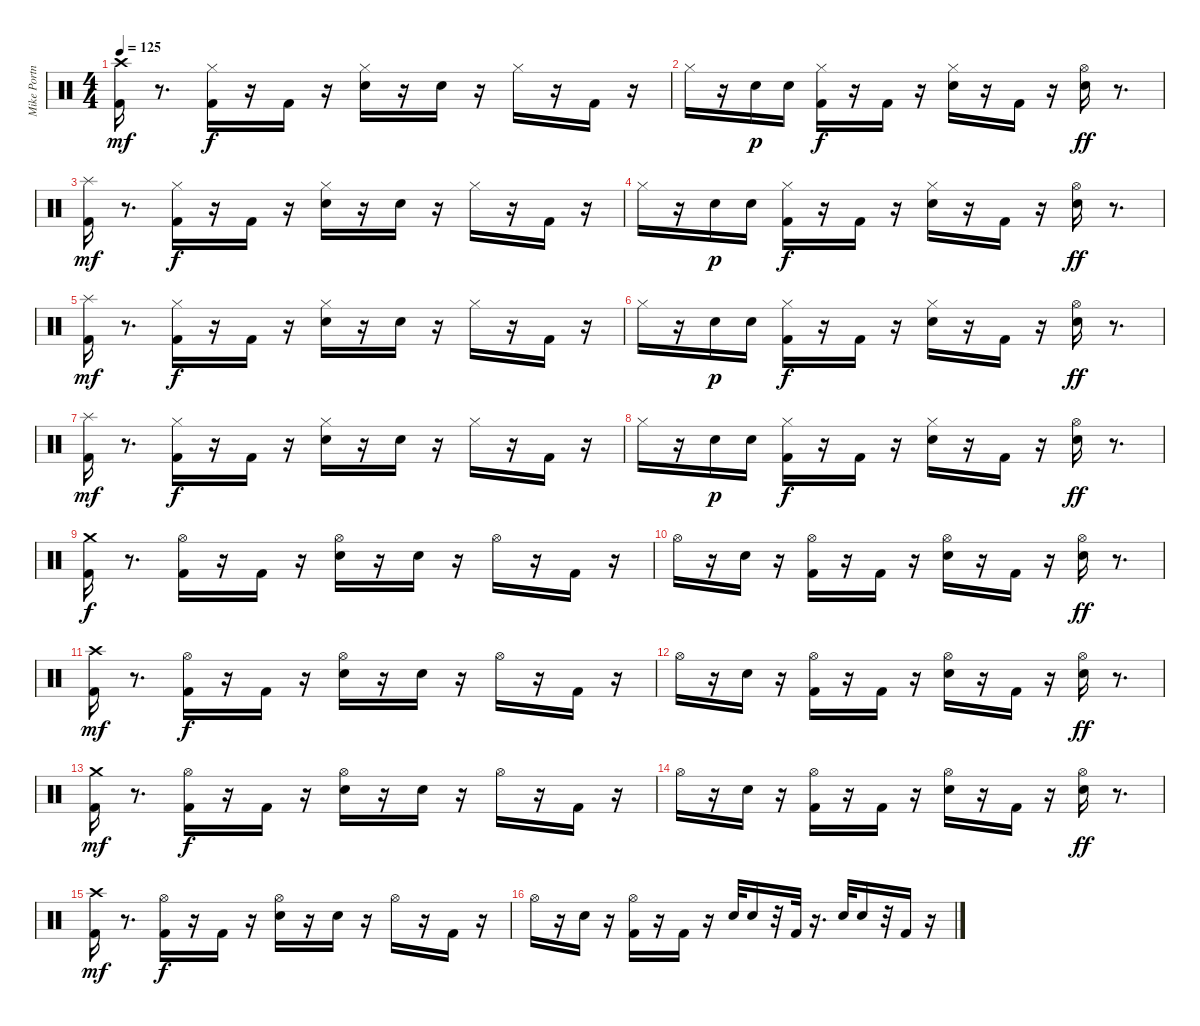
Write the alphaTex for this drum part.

\track ("Mike Portnoy" "Mike Portn") {instrument percussion}
\staff {score}
\articulation defaults
\ts (4 4)
\tempo 125
\clef neutral
\ks c
("Crash high (hit)" "Kick (hit) 2").16{dy mf} r.8{d} ("Hi-Hat (closed)" "Kick (hit) 2").16{dy f} r.16 "Kick (hit) 2".16 r.16 ("Hi-Hat (closed)" "Snare (hit) 2").16 r.16 "Snare (hit) 2".16 r.16 "Hi-Hat (closed)".16 r.16 "Kick (hit) 2".16 r.16 |
"Hi-Hat (closed)".16 r.16 "Snare (hit) 2".16{dy p} "Snare (hit) 2".16 ("Hi-Hat (closed)" "Kick (hit) 2").16{dy f} r.16 "Kick (hit) 2".16 r.16 ("Hi-Hat (closed)" "Snare (hit) 2").16 r.16 "Kick (hit) 2".16 r.16 ("Hi-Hat (open)" "Snare (hit) 2").16{dy ff} r.8{d} |
("Splash (hit)" "Kick (hit) 2").16{dy mf} r.8{d} ("Hi-Hat (closed)" "Kick (hit) 2").16{dy f} r.16 "Kick (hit) 2".16 r.16 ("Hi-Hat (closed)" "Snare (hit) 2").16 r.16 "Snare (hit) 2".16 r.16 "Hi-Hat (closed)".16 r.16 "Kick (hit) 2".16 r.16 |
"Hi-Hat (closed)".16 r.16 "Snare (hit) 2".16{dy p} "Snare (hit) 2".16 ("Hi-Hat (closed)" "Kick (hit) 2").16{dy f} r.16 "Kick (hit) 2".16 r.16 ("Hi-Hat (closed)" "Snare (hit) 2").16 r.16 "Kick (hit) 2".16 r.16 ("Hi-Hat (open)" "Snare (hit) 2").16{dy ff} r.8{d} |
("Splash (hit)" "Kick (hit) 2").16{dy mf} r.8{d} ("Hi-Hat (closed)" "Kick (hit) 2").16{dy f} r.16 "Kick (hit) 2".16 r.16 ("Hi-Hat (closed)" "Snare (hit) 2").16 r.16 "Snare (hit) 2".16 r.16 "Hi-Hat (closed)".16 r.16 "Kick (hit) 2".16 r.16 |
"Hi-Hat (closed)".16 r.16 "Snare (hit) 2".16{dy p} "Snare (hit) 2".16 ("Hi-Hat (closed)" "Kick (hit) 2").16{dy f} r.16 "Kick (hit) 2".16 r.16 ("Hi-Hat (closed)" "Snare (hit) 2").16 r.16 "Kick (hit) 2".16 r.16 ("Hi-Hat (open)" "Snare (hit) 2").16{dy ff} r.8{d} |
("Splash (hit)" "Kick (hit) 2").16{dy mf} r.8{d} ("Hi-Hat (closed)" "Kick (hit) 2").16{dy f} r.16 "Kick (hit) 2".16 r.16 ("Hi-Hat (closed)" "Snare (hit) 2").16 r.16 "Snare (hit) 2".16 r.16 "Hi-Hat (closed)".16 r.16 "Kick (hit) 2".16 r.16 |
"Hi-Hat (closed)".16 r.16 "Snare (hit) 2".16{dy p} "Snare (hit) 2".16 ("Hi-Hat (closed)" "Kick (hit) 2").16{dy f} r.16 "Kick (hit) 2".16 r.16 ("Hi-Hat (closed)" "Snare (hit) 2").16 r.16 "Kick (hit) 2".16 r.16 ("Hi-Hat (open)" "Snare (hit) 2").16{dy ff} r.8{d} |
("Crash medium (hit)" "Kick (hit) 2").16{dy f} r.8{d} ("Hi-Hat (open)" "Kick (hit) 2").16 r.16 "Kick (hit) 2".16 r.16 ("Hi-Hat (open)" "Snare (hit) 2").16 r.16 "Snare (hit) 2".16 r.16 "Hi-Hat (open)".16 r.16 "Kick (hit) 2".16 r.16 |
"Hi-Hat (open)".16 r.16 "Snare (hit) 2".16 r.16 ("Hi-Hat (open)" "Kick (hit) 2").16 r.16 "Kick (hit) 2".16 r.16 ("Hi-Hat (open)" "Snare (hit) 2").16 r.16 "Kick (hit) 2".16 r.16 ("Hi-Hat (open)" "Snare (hit) 2").16{dy ff} r.8{d} |
("Crash high (hit)" "Kick (hit) 2").16{dy mf} r.8{d} ("Hi-Hat (open)" "Kick (hit) 2").16{dy f} r.16 "Kick (hit) 2".16 r.16 ("Hi-Hat (open)" "Snare (hit) 2").16 r.16 "Snare (hit) 2".16 r.16 "Hi-Hat (open)".16 r.16 "Kick (hit) 2".16 r.16 |
"Hi-Hat (open)".16 r.16 "Snare (hit) 2".16 r.16 ("Hi-Hat (open)" "Kick (hit) 2").16 r.16 "Kick (hit) 2".16 r.16 ("Hi-Hat (open)" "Snare (hit) 2").16 r.16 "Kick (hit) 2".16 r.16 ("Hi-Hat (open)" "Snare (hit) 2").16{dy ff} r.8{d} |
("Kick (hit) 2" "Crash medium (hit)").16{dy mf} r.8{d} ("Hi-Hat (open)" "Kick (hit) 2").16{dy f} r.16 "Kick (hit) 2".16 r.16 ("Hi-Hat (open)" "Snare (hit) 2").16 r.16 "Snare (hit) 2".16 r.16 "Hi-Hat (open)".16 r.16 "Kick (hit) 2".16 r.16 |
"Hi-Hat (open)".16 r.16 "Snare (hit) 2".16 r.16 ("Hi-Hat (open)" "Kick (hit) 2").16 r.16 "Kick (hit) 2".16 r.16 ("Hi-Hat (open)" "Snare (hit) 2").16 r.16 "Kick (hit) 2".16 r.16 ("Hi-Hat (open)" "Snare (hit) 2").16{dy ff} r.8{d} |
("Kick (hit) 2" "Crash high (hit)").16{dy mf} r.8{d} ("Hi-Hat (open)" "Kick (hit) 2").16{dy f} r.16 "Kick (hit) 2".16 r.16 ("Hi-Hat (open)" "Snare (hit) 2").16 r.16 "Snare (hit) 2".16 r.16 "Hi-Hat (open)".16 r.16 "Kick (hit) 2".16 r.16 |
"Hi-Hat (open)".16 r.16 "Snare (hit) 2".16 r.16 ("Hi-Hat (open)" "Kick (hit) 2").16 r.16 "Kick (hit) 2".16 r.16 "Snare (hit) 2".32 "Snare (hit) 2".16 r.32 "Kick (hit) 2".32 r.16{d} "Snare (hit) 2".32 "Snare (hit) 2".16 r.32 "Kick (hit) 2".16 r.16
